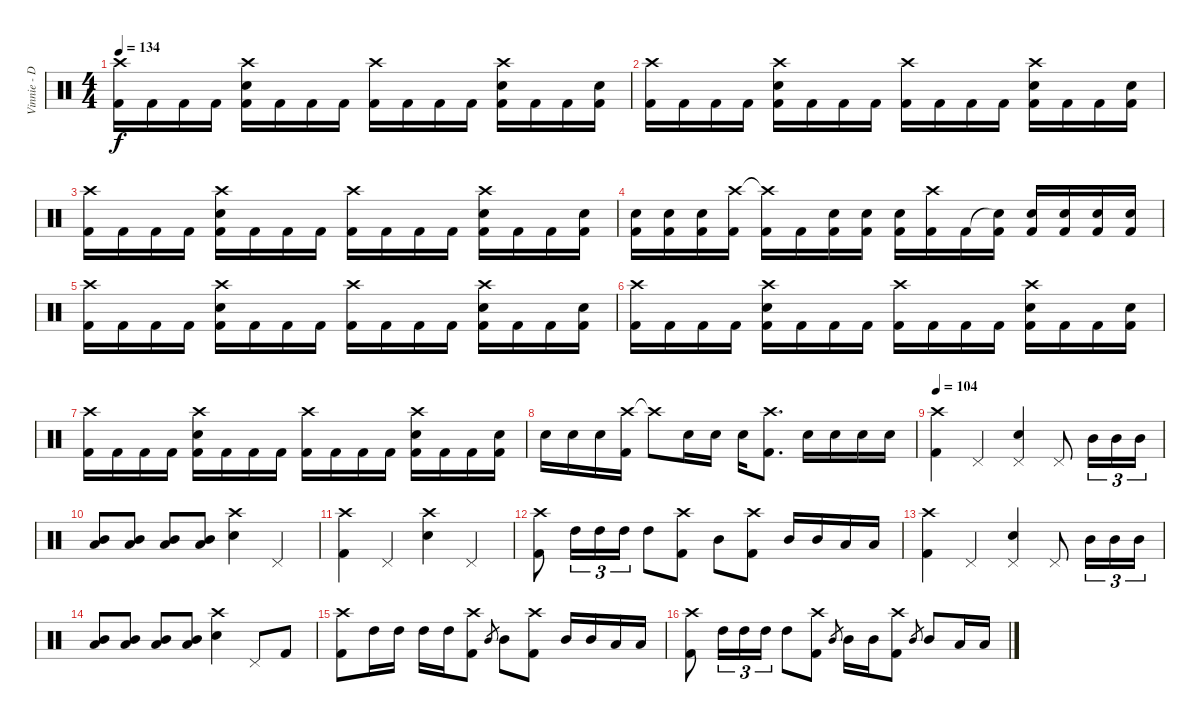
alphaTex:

\track ("Vinnie - Drums" "Vinnie - D") {instrument percussion}
\staff {score}
\articulation defaults
\ts (4 4)
\tempo 134
\clef neutral
\ks c
("Crash high (hit)" "Kick (hit) 2").16{dy f} "Kick (hit) 2".16 "Kick (hit) 2".16 "Kick (hit) 2".16 ("Crash high (hit)" "Electric Snare (hit)" "Kick (hit) 2").16 "Kick (hit) 2".16 "Kick (hit) 2".16 "Kick (hit) 2".16 ("Crash high (hit)" "Kick (hit) 2").16 "Kick (hit) 2".16 "Kick (hit) 2".16 "Kick (hit) 2".16 ("Crash high (hit)" "Electric Snare (hit)" "Kick (hit) 2").16 "Kick (hit) 2".16 "Kick (hit) 2".16 ("Electric Snare (hit)" "Kick (hit) 2").16 |
("Crash high (hit)" "Kick (hit) 2").16 "Kick (hit) 2".16 "Kick (hit) 2".16 "Kick (hit) 2".16 ("Crash high (hit)" "Electric Snare (hit)" "Kick (hit) 2").16 "Kick (hit) 2".16 "Kick (hit) 2".16 "Kick (hit) 2".16 ("Crash high (hit)" "Kick (hit) 2").16 "Kick (hit) 2".16 "Kick (hit) 2".16 "Kick (hit) 2".16 ("Crash high (hit)" "Electric Snare (hit)" "Kick (hit) 2").16 "Kick (hit) 2".16 "Kick (hit) 2".16 ("Electric Snare (hit)" "Kick (hit) 2").16 |
("Crash high (hit)" "Kick (hit) 2").16 "Kick (hit) 2".16 "Kick (hit) 2".16 "Kick (hit) 2".16 ("Crash high (hit)" "Electric Snare (hit)" "Kick (hit) 2").16 "Kick (hit) 2".16 "Kick (hit) 2".16 "Kick (hit) 2".16 ("Crash high (hit)" "Kick (hit) 2").16 "Kick (hit) 2".16 "Kick (hit) 2".16 "Kick (hit) 2".16 ("Crash high (hit)" "Electric Snare (hit)" "Kick (hit) 2").16 "Kick (hit) 2".16 "Kick (hit) 2".16 ("Electric Snare (hit)" "Kick (hit) 2").16 |
("Electric Snare (hit)" "Kick (hit) 2").16 ("Electric Snare (hit)" "Kick (hit) 2").16 ("Electric Snare (hit)" "Kick (hit) 2").16 ("Crash high (hit)" "Kick (hit) 2").16 ("Crash high (hit)"{t} "Kick (hit) 2").16 "Kick (hit) 2".16 ("Electric Snare (hit)" "Kick (hit) 2").16 ("Electric Snare (hit)" "Kick (hit) 2").16 ("Electric Snare (hit)" "Kick (hit) 2").16 ("Crash high (hit)" "Kick (hit) 2").16 "Kick (hit) 2".16 ("Snare (hit)"{t} "Kick (hit) 2").16 ("Electric Snare (hit)" "Kick (hit) 2").16 ("Electric Snare (hit)" "Kick (hit) 2").16 ("Electric Snare (hit)" "Kick (hit) 2").16 ("Electric Snare (hit)" "Kick (hit) 2").16 |
("Crash high (hit)" "Kick (hit) 2").16 "Kick (hit) 2".16 "Kick (hit) 2".16 "Kick (hit) 2".16 ("Crash high (hit)" "Electric Snare (hit)" "Kick (hit) 2").16 "Kick (hit) 2".16 "Kick (hit) 2".16 "Kick (hit) 2".16 ("Crash high (hit)" "Kick (hit) 2").16 "Kick (hit) 2".16 "Kick (hit) 2".16 "Kick (hit) 2".16 ("Crash high (hit)" "Electric Snare (hit)" "Kick (hit) 2").16 "Kick (hit) 2".16 "Kick (hit) 2".16 ("Electric Snare (hit)" "Kick (hit) 2").16 |
("Crash high (hit)" "Kick (hit) 2").16 "Kick (hit) 2".16 "Kick (hit) 2".16 "Kick (hit) 2".16 ("Crash high (hit)" "Electric Snare (hit)" "Kick (hit) 2").16 "Kick (hit) 2".16 "Kick (hit) 2".16 "Kick (hit) 2".16 ("Crash high (hit)" "Kick (hit) 2").16 "Kick (hit) 2".16 "Kick (hit) 2".16 "Kick (hit) 2".16 ("Crash high (hit)" "Electric Snare (hit)" "Kick (hit) 2").16 "Kick (hit) 2".16 "Kick (hit) 2".16 ("Electric Snare (hit)" "Kick (hit) 2").16 |
("Crash high (hit)" "Kick (hit) 2").16 "Kick (hit) 2".16 "Kick (hit) 2".16 "Kick (hit) 2".16 ("Crash high (hit)" "Electric Snare (hit)" "Kick (hit) 2").16 "Kick (hit) 2".16 "Kick (hit) 2".16 "Kick (hit) 2".16 ("Crash high (hit)" "Kick (hit) 2").16 "Kick (hit) 2".16 "Kick (hit) 2".16 "Kick (hit) 2".16 ("Crash high (hit)" "Electric Snare (hit)" "Kick (hit) 2").16 "Kick (hit) 2".16 "Kick (hit) 2".16 ("Electric Snare (hit)" "Kick (hit) 2").16 |
"Electric Snare (hit)".16 "Electric Snare (hit)".16 "Electric Snare (hit)".16 ("Crash high (hit)" "Kick (hit) 2").16 "Crash high (hit)"{t}.8 "Electric Snare (hit)".16 "Electric Snare (hit)".16 "Electric Snare (hit)".16 ("Crash high (hit)" "Kick (hit) 2").8{d} "Electric Snare (hit)".16 "Electric Snare (hit)".16 "Electric Snare (hit)".16 "Electric Snare (hit)".16 |
\tempo 104
("Crash high (hit)" "Kick (hit) 2").4 "Pedal Hi-Hat (hit)".4 ("Pedal Hi-Hat (hit)" "Electric Snare (hit)").4 "Pedal Hi-Hat (hit)".8 "Mid Tom (hit)".16{tu (3 2)} "Mid Tom (hit)".16{tu (3 2)} "Mid Tom (hit)".16{tu (3 2)} |
("Mid Tom (hit)" "Low Tom (hit)").8 ("Mid Tom (hit)" "Low Tom (hit)").8 ("Mid Tom (hit)" "Low Tom (hit)").8 ("Mid Tom (hit)" "Low Tom (hit)").8 ("Crash high (hit)" "Electric Snare (hit)").4 "Pedal Hi-Hat (hit)".4 |
("Crash high (hit)" "Kick (hit) 2").4 "Pedal Hi-Hat (hit)".4 ("Crash high (hit)" "Electric Snare (hit)").4 "Pedal Hi-Hat (hit)".4 |
("Crash high (hit)" "Kick (hit) 2").8 "High Tom (hit)".16{tu (3 2)} "High Tom (hit)".16{tu (3 2)} "High Tom (hit)".16{tu (3 2)} "High Tom (hit)".8 ("Crash high (hit)" "Kick (hit) 2").8 "Mid Tom (hit)".8 ("Crash high (hit)" "Kick (hit) 2").8 "Mid Tom (hit)".16 "Mid Tom (hit)".16 "Low Tom (hit)".16 "Low Tom (hit)".16 |
("Crash high (hit)" "Kick (hit) 2").4 "Pedal Hi-Hat (hit)".4 ("Pedal Hi-Hat (hit)" "Electric Snare (hit)").4 "Pedal Hi-Hat (hit)".8 "Mid Tom (hit)".16{tu (3 2)} "Mid Tom (hit)".16{tu (3 2)} "Mid Tom (hit)".16{tu (3 2)} |
("Mid Tom (hit)" "Low Tom (hit)").8 ("Mid Tom (hit)" "Low Tom (hit)").8 ("Mid Tom (hit)" "Low Tom (hit)").8 ("Mid Tom (hit)" "Low Tom (hit)").8 ("Crash high (hit)" "Electric Snare (hit)").4 "Pedal Hi-Hat (hit)".8 "Kick (hit) 2".8 |
("Crash high (hit)" "Kick (hit) 2").8 "High Tom (hit)".16 "High Tom (hit)".16 "High Tom (hit)".16 "High Tom (hit)".16 ("Crash high (hit)" "Kick (hit) 2").8 "Mid Tom (hit)".8{gr} "Mid Tom (hit)".8 ("Crash high (hit)" "Kick (hit) 2").8 "Mid Tom (hit)".16 "Mid Tom (hit)".16 "Low Tom (hit)".16 "Low Tom (hit)".16 |
("Crash high (hit)" "Kick (hit) 2").8 "High Tom (hit)".16{tu (3 2)} "High Tom (hit)".16{tu (3 2)} "High Tom (hit)".16{tu (3 2)} "High Tom (hit)".8 ("Crash high (hit)" "Kick (hit) 2").8 "Mid Tom (hit)".8{gr} "Mid Tom (hit)".16 "Mid Tom (hit)".16 ("Crash high (hit)" "Kick (hit) 2").8 "Mid Tom (hit)".8{gr} "Mid Tom (hit)".8 "Low Tom (hit)".16 "Low Tom (hit)".16
